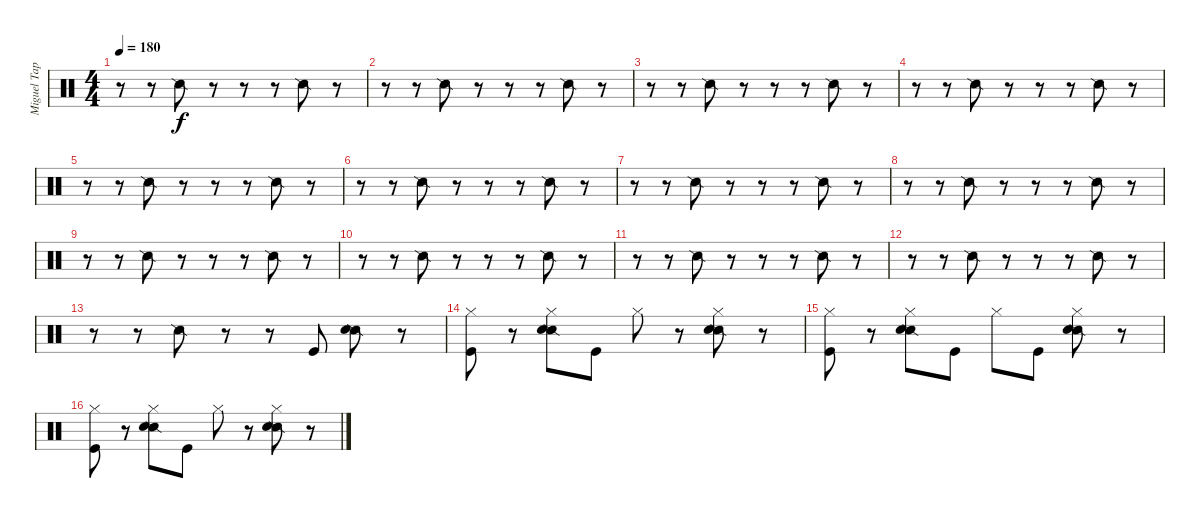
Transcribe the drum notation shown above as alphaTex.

\track ("Miguel Tapia (Batería)" "Miguel Tap") {instrument percussion}
\staff {score}
\articulation defaults
\ts (4 4)
\tempo 180
\clef neutral
\ks c
r.8{dy f} r.8 "Snare (side stick) 2".8 r.8 r.8 r.8 "Snare (side stick) 2".8 r.8 |
r.8 r.8 "Snare (side stick) 2".8 r.8 r.8 r.8 "Snare (side stick) 2".8 r.8 |
r.8 r.8 "Snare (side stick) 2".8 r.8 r.8 r.8 "Snare (side stick) 2".8 r.8 |
r.8 r.8 "Snare (side stick) 2".8 r.8 r.8 r.8 "Snare (side stick) 2".8 r.8 |
r.8 r.8 "Snare (side stick) 2".8 r.8 r.8 r.8 "Snare (side stick) 2".8 r.8 |
r.8 r.8 "Snare (side stick) 2".8 r.8 r.8 r.8 "Snare (side stick) 2".8 r.8 |
r.8 r.8 "Snare (side stick) 2".8 r.8 r.8 r.8 "Snare (side stick) 2".8 r.8 |
r.8 r.8 "Snare (side stick) 2".8 r.8 r.8 r.8 "Snare (side stick) 2".8 r.8 |
r.8 r.8 "Snare (side stick) 2".8 r.8 r.8 r.8 "Snare (side stick) 2".8 r.8 |
r.8 r.8 "Snare (side stick) 2".8 r.8 r.8 r.8 "Snare (side stick) 2".8 r.8 |
r.8 r.8 "Snare (side stick) 2".8 r.8 r.8 r.8 "Snare (side stick) 2".8 r.8 |
r.8 r.8 "Snare (side stick) 2".8 r.8 r.8 r.8 "Snare (side stick) 2".8 r.8 |
r.8 r.8 "Snare (side stick) 2".8 r.8 r.8 "Kick (hit)".8 ("Snare (side stick) 2" "Snare (hit) 2").8 r.8 |
("Hi-Hat (closed)" "Kick (hit)").8 r.8 ("Snare (side stick) 2" "Hi-Hat (closed)" "Snare (hit) 2").8 "Kick (hit)".8 "Hi-Hat (closed)".8 r.8 ("Snare (side stick) 2" "Hi-Hat (closed)" "Snare (hit) 2").8 r.8 |
("Hi-Hat (closed)" "Kick (hit)").8 r.8 ("Snare (side stick) 2" "Hi-Hat (closed)" "Snare (hit) 2").8 "Kick (hit)".8 "Hi-Hat (closed)".8 "Kick (hit)".8 ("Snare (side stick) 2" "Hi-Hat (closed)" "Snare (hit) 2").8 r.8 |
("Hi-Hat (closed)" "Kick (hit)").8 r.8 ("Snare (side stick) 2" "Hi-Hat (closed)" "Snare (hit) 2").8 "Kick (hit)".8 "Hi-Hat (closed)".8 r.8 ("Snare (side stick) 2" "Hi-Hat (closed)" "Snare (hit) 2").8 r.8
